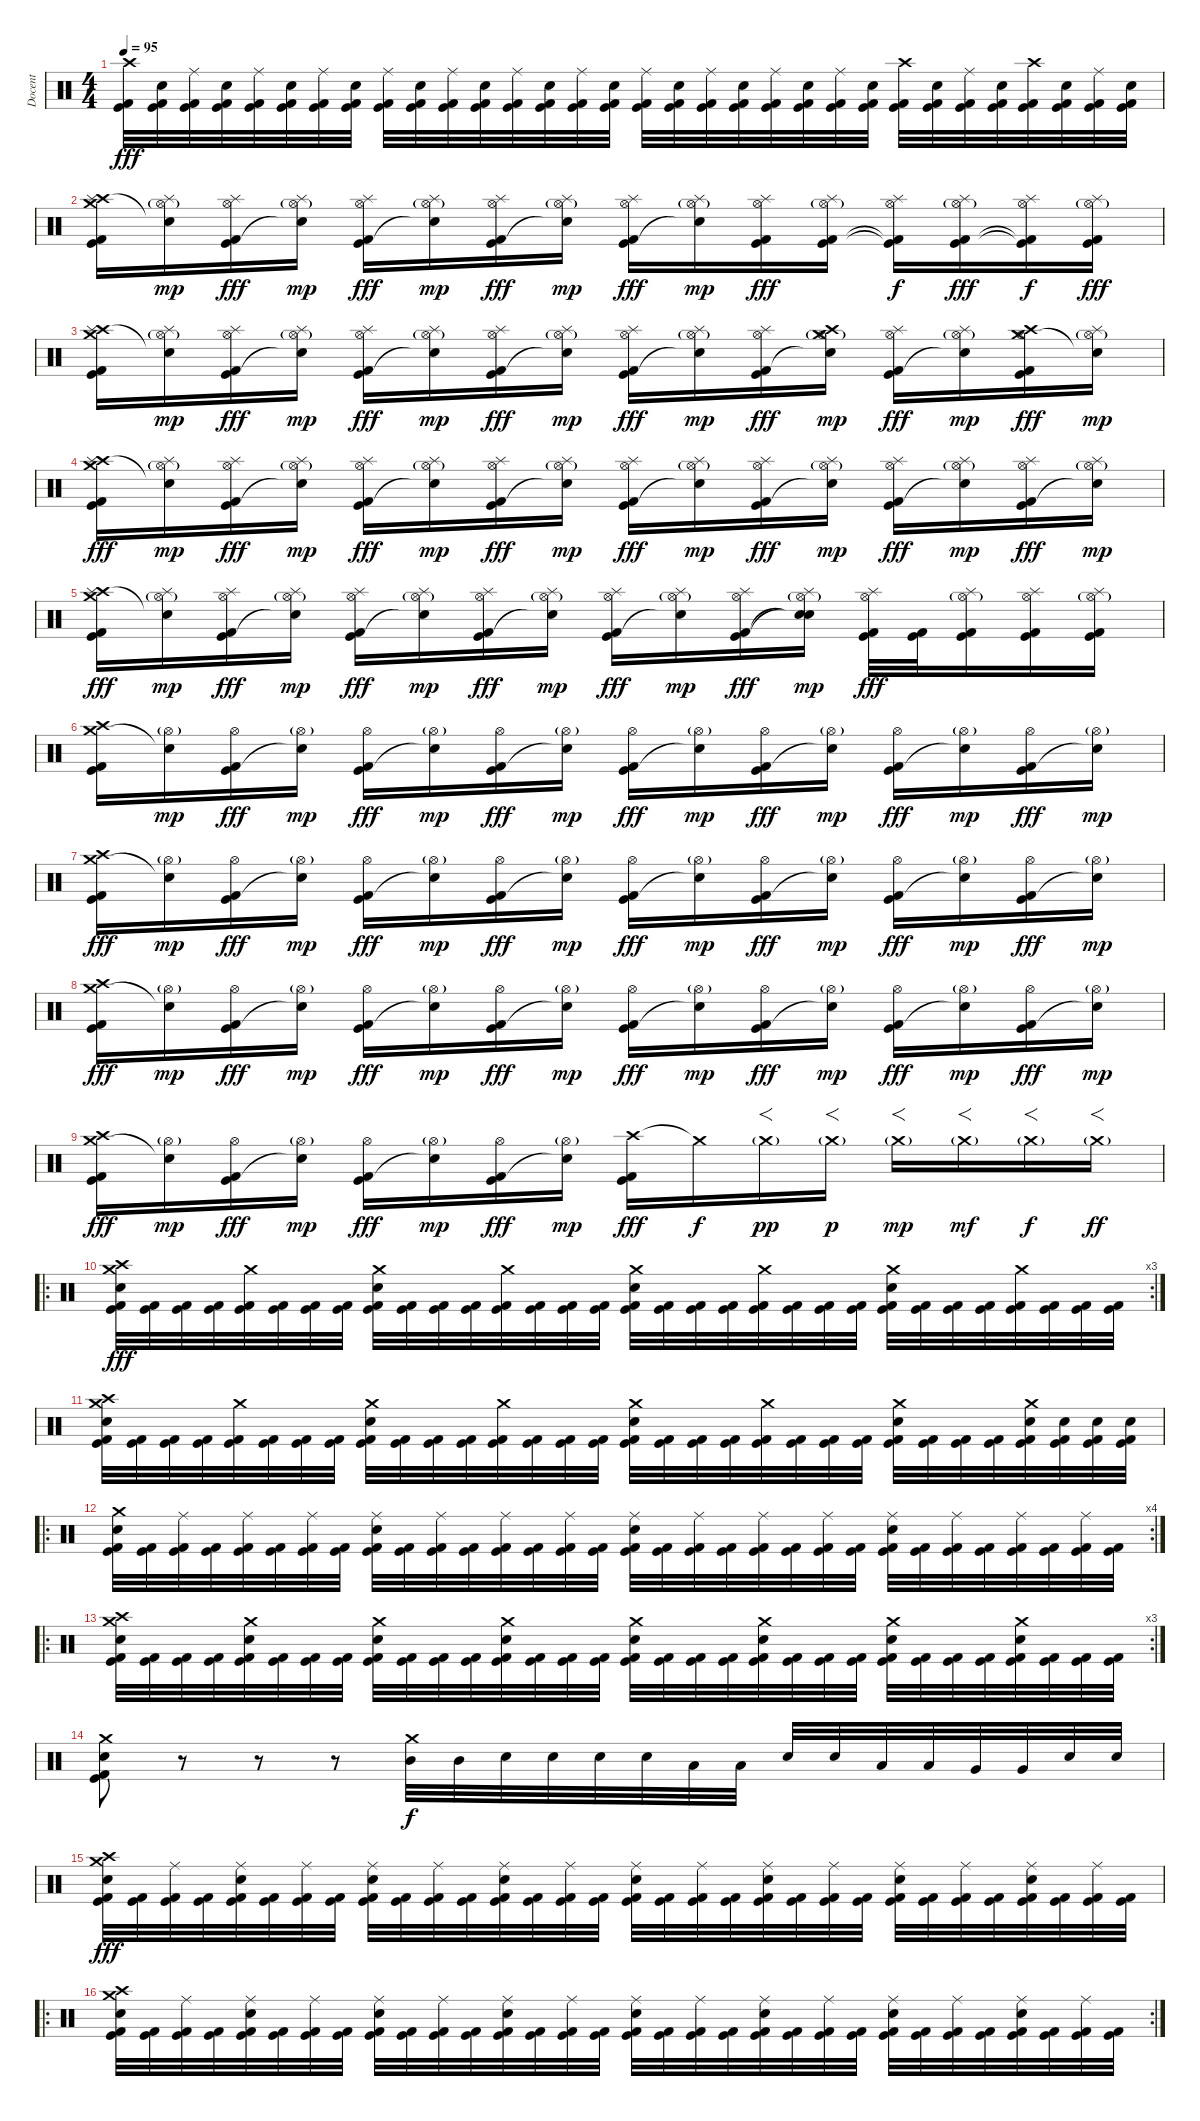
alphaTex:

\track ("Docent" "Docent") {instrument percussion}
\staff {score}
\articulation defaults
\ts (4 4)
\tempo 95
\clef neutral
\ks c
("Crash high (hit)" "Kick (hit)" "Kick (hit) 2").32{dy fff} ("Electric Snare (hit)" "Kick (hit)" "Kick (hit) 2").32 ("Ride (middle)" "Kick (hit)" "Kick (hit) 2").32 ("Electric Snare (hit)" "Kick (hit)" "Kick (hit) 2").32 ("Ride (middle)" "Kick (hit)" "Kick (hit) 2").32 ("Electric Snare (hit)" "Kick (hit)" "Kick (hit) 2").32 ("Ride (middle)" "Kick (hit)" "Kick (hit) 2").32 ("Electric Snare (hit)" "Kick (hit)" "Kick (hit) 2").32 ("Ride (middle)" "Kick (hit)" "Kick (hit) 2").32 ("Electric Snare (hit)" "Kick (hit)" "Kick (hit) 2").32 ("Ride (middle)" "Kick (hit)" "Kick (hit) 2").32 ("Electric Snare (hit)" "Kick (hit)" "Kick (hit) 2").32 ("Ride (middle)" "Kick (hit)" "Kick (hit) 2").32 ("Electric Snare (hit)" "Kick (hit)" "Kick (hit) 2").32 ("Ride (middle)" "Kick (hit)" "Kick (hit) 2").32 ("Electric Snare (hit)" "Kick (hit)" "Kick (hit) 2").32 ("Ride (middle)" "Kick (hit)" "Kick (hit) 2").32 ("Electric Snare (hit)" "Kick (hit)" "Kick (hit) 2").32 ("Ride (middle)" "Kick (hit)" "Kick (hit) 2").32 ("Electric Snare (hit)" "Kick (hit)" "Kick (hit) 2").32 ("Ride (middle)" "Kick (hit)" "Kick (hit) 2").32 ("Electric Snare (hit)" "Kick (hit)" "Kick (hit) 2").32 ("Ride (middle)" "Kick (hit)" "Kick (hit) 2").32 ("Electric Snare (hit)" "Kick (hit)" "Kick (hit) 2").32 ("Crash high (hit)" "Kick (hit)" "Kick (hit) 2").32 ("Electric Snare (hit)" "Kick (hit)" "Kick (hit) 2").32 ("Ride (middle)" "Kick (hit)" "Kick (hit) 2").32 ("Electric Snare (hit)" "Kick (hit)" "Kick (hit) 2").32 ("Crash high (hit)" "Kick (hit)" "Kick (hit) 2").32 ("Electric Snare (hit)" "Kick (hit)" "Kick (hit) 2").32 ("Ride (middle)" "Kick (hit)" "Kick (hit) 2").32 ("Electric Snare (hit)" "Kick (hit)" "Kick (hit) 2").32 |
("Crash high (hit)" "Crash medium (hit)" "Splash (hit)" "Kick (hit)" "Kick (hit) 2").16 ("Hi-Hat (open)"{g} "Splash (hit)" "Snare (hit)"{t}).16{dy mp} ("Hi-Hat (open)" "Splash (hit)" "Kick (hit)" "Kick (hit) 2").16{dy fff} ("Hi-Hat (open)"{g} "Splash (hit)" "Snare (hit)"{t}).16{dy mp} ("Hi-Hat (open)" "Splash (hit)" "Kick (hit)" "Kick (hit) 2").16{dy fff} ("Hi-Hat (open)"{g} "Splash (hit)" "Snare (hit)"{t}).16{dy mp} ("Hi-Hat (open)" "Splash (hit)" "Kick (hit)" "Kick (hit) 2").16{dy fff} ("Hi-Hat (open)"{g} "Splash (hit)" "Snare (hit)"{t}).16{dy mp} ("Hi-Hat (open)" "Splash (hit)" "Kick (hit)" "Kick (hit) 2").16{dy fff} ("Hi-Hat (open)"{g} "Splash (hit)" "Snare (hit)"{t}).16{dy mp} ("Hi-Hat (open)" "Splash (hit)" "Kick (hit)" "Kick (hit) 2").16{dy fff} ("Hi-Hat (open)"{g} "Splash (hit)" "Kick (hit)" "Kick (hit) 2").16 ("Hi-Hat (open)" "Splash (hit)" "Kick (hit)"{t} "Kick (hit) 2"{t}).16{dy f} ("Hi-Hat (open)"{g} "Splash (hit)" "Kick (hit)" "Kick (hit) 2").16{dy fff} ("Hi-Hat (open)" "Splash (hit)" "Kick (hit)"{t} "Kick (hit) 2"{t}).16{dy f} ("Hi-Hat (open)"{g} "Splash (hit)" "Kick (hit)" "Kick (hit) 2").16{dy fff} |
("Crash high (hit)" "Crash medium (hit)" "Splash (hit)" "Kick (hit)" "Kick (hit) 2").16 ("Hi-Hat (open)"{g} "Splash (hit)" "Snare (hit)"{t}).16{dy mp} ("Hi-Hat (open)" "Splash (hit)" "Kick (hit)" "Kick (hit) 2").16{dy fff} ("Hi-Hat (open)"{g} "Splash (hit)" "Snare (hit)"{t}).16{dy mp} ("Hi-Hat (open)" "Splash (hit)" "Kick (hit)" "Kick (hit) 2").16{dy fff} ("Hi-Hat (open)"{g} "Splash (hit)" "Snare (hit)"{t}).16{dy mp} ("Hi-Hat (open)" "Splash (hit)" "Kick (hit)" "Kick (hit) 2").16{dy fff} ("Hi-Hat (open)"{g} "Splash (hit)" "Snare (hit)"{t}).16{dy mp} ("Hi-Hat (open)" "Splash (hit)" "Kick (hit)" "Kick (hit) 2").16{dy fff} ("Hi-Hat (open)"{g} "Splash (hit)" "Snare (hit)"{t}).16{dy mp} ("Hi-Hat (open)" "Splash (hit)" "Kick (hit)" "Kick (hit) 2").16{dy fff} ("Hi-Hat (open)"{g} "Crash high (hit)" "Crash medium (hit)" "Snare (hit)"{t}).16{dy mp} ("Hi-Hat (open)" "Splash (hit)" "Kick (hit)" "Kick (hit) 2").16{dy fff} ("Hi-Hat (open)"{g} "Splash (hit)" "Snare (hit)"{t}).16{dy mp} ("Hi-Hat (open)" "Crash high (hit)" "Crash medium (hit)" "Kick (hit)" "Kick (hit) 2").16{dy fff} ("Hi-Hat (open)"{g} "Splash (hit)" "Snare (hit)"{t}).16{dy mp} |
("Crash high (hit)" "Crash medium (hit)" "Splash (hit)" "Kick (hit)" "Kick (hit) 2").16{dy fff} ("Hi-Hat (open)"{g} "Splash (hit)" "Snare (hit)"{t}).16{dy mp} ("Hi-Hat (open)" "Splash (hit)" "Kick (hit)" "Kick (hit) 2").16{dy fff} ("Hi-Hat (open)"{g} "Splash (hit)" "Snare (hit)"{t}).16{dy mp} ("Hi-Hat (open)" "Splash (hit)" "Kick (hit)" "Kick (hit) 2").16{dy fff} ("Hi-Hat (open)"{g} "Splash (hit)" "Snare (hit)"{t}).16{dy mp} ("Hi-Hat (open)" "Splash (hit)" "Kick (hit)" "Kick (hit) 2").16{dy fff} ("Hi-Hat (open)"{g} "Splash (hit)" "Snare (hit)"{t}).16{dy mp} ("Hi-Hat (open)" "Splash (hit)" "Kick (hit)" "Kick (hit) 2").16{dy fff} ("Hi-Hat (open)"{g} "Splash (hit)" "Snare (hit)"{t}).16{dy mp} ("Hi-Hat (open)" "Splash (hit)" "Kick (hit)" "Kick (hit) 2").16{dy fff} ("Hi-Hat (open)"{g} "Splash (hit)" "Snare (hit)"{t}).16{dy mp} ("Hi-Hat (open)" "Splash (hit)" "Kick (hit)" "Kick (hit) 2").16{dy fff} ("Hi-Hat (open)"{g} "Splash (hit)" "Snare (hit)"{t}).16{dy mp} ("Hi-Hat (open)" "Splash (hit)" "Kick (hit)" "Kick (hit) 2").16{dy fff} ("Hi-Hat (open)"{g} "Splash (hit)" "Snare (hit)"{t}).16{dy mp} |
("Crash high (hit)" "Crash medium (hit)" "Splash (hit)" "Kick (hit)" "Kick (hit) 2").16{dy fff} ("Hi-Hat (open)"{g} "Splash (hit)" "Snare (hit)"{t}).16{dy mp} ("Hi-Hat (open)" "Splash (hit)" "Kick (hit)" "Kick (hit) 2").16{dy fff} ("Hi-Hat (open)"{g} "Splash (hit)" "Snare (hit)"{t}).16{dy mp} ("Hi-Hat (open)" "Splash (hit)" "Kick (hit)" "Kick (hit) 2").16{dy fff} ("Hi-Hat (open)"{g} "Splash (hit)" "Snare (hit)"{t}).16{dy mp} ("Hi-Hat (open)" "Splash (hit)" "Kick (hit)" "Kick (hit) 2").16{dy fff} ("Hi-Hat (open)"{g} "Splash (hit)" "Snare (hit)"{t}).16{dy mp} ("Hi-Hat (open)" "Splash (hit)" "Kick (hit)" "Kick (hit) 2").16{dy fff} ("Hi-Hat (open)"{g} "Splash (hit)" "Snare (hit)"{t}).16{dy mp} ("Hi-Hat (open)" "Splash (hit)" "Kick (hit)" "Kick (hit) 2").16{dy fff} ("Hi-Hat (open)"{g} "Splash (hit)" "Snare (hit)"{t} "Snare (hit)"{t}).16{dy mp} ("Hi-Hat (open)" "Splash (hit)" "Kick (hit)" "Kick (hit) 2").32{dy fff} ("Kick (hit)" "Kick (hit) 2").32 ("Hi-Hat (open)"{g} "Splash (hit)" "Kick (hit)" "Kick (hit) 2").16 ("Hi-Hat (open)" "Splash (hit)" "Kick (hit)" "Kick (hit) 2").16 ("Hi-Hat (open)"{g} "Splash (hit)" "Kick (hit)" "Kick (hit) 2").16 |
("Crash high (hit)" "Crash medium (hit)" "Kick (hit)" "Kick (hit) 2").16 ("Hi-Hat (open)"{g} "Snare (hit)"{t}).16{dy mp} ("Hi-Hat (open)" "Kick (hit)" "Kick (hit) 2").16{dy fff} ("Hi-Hat (open)"{g} "Snare (hit)"{t}).16{dy mp} ("Hi-Hat (open)" "Kick (hit)" "Kick (hit) 2").16{dy fff} ("Hi-Hat (open)"{g} "Snare (hit)"{t}).16{dy mp} ("Hi-Hat (open)" "Kick (hit)" "Kick (hit) 2").16{dy fff} ("Hi-Hat (open)"{g} "Snare (hit)"{t}).16{dy mp} ("Hi-Hat (open)" "Kick (hit)" "Kick (hit) 2").16{dy fff} ("Hi-Hat (open)"{g} "Snare (hit)"{t}).16{dy mp} ("Hi-Hat (open)" "Kick (hit)" "Kick (hit) 2").16{dy fff} ("Hi-Hat (open)"{g} "Snare (hit)"{t}).16{dy mp} ("Hi-Hat (open)" "Kick (hit)" "Kick (hit) 2").16{dy fff} ("Hi-Hat (open)"{g} "Snare (hit)"{t}).16{dy mp} ("Hi-Hat (open)" "Kick (hit)" "Kick (hit) 2").16{dy fff} ("Hi-Hat (open)"{g} "Snare (hit)"{t}).16{dy mp} |
("Crash high (hit)" "Crash medium (hit)" "Kick (hit)" "Kick (hit) 2").16{dy fff} ("Hi-Hat (open)"{g} "Snare (hit)"{t}).16{dy mp} ("Hi-Hat (open)" "Kick (hit)" "Kick (hit) 2").16{dy fff} ("Hi-Hat (open)"{g} "Snare (hit)"{t}).16{dy mp} ("Hi-Hat (open)" "Kick (hit)" "Kick (hit) 2").16{dy fff} ("Hi-Hat (open)"{g} "Snare (hit)"{t}).16{dy mp} ("Hi-Hat (open)" "Kick (hit)" "Kick (hit) 2").16{dy fff} ("Hi-Hat (open)"{g} "Snare (hit)"{t}).16{dy mp} ("Hi-Hat (open)" "Kick (hit)" "Kick (hit) 2").16{dy fff} ("Hi-Hat (open)"{g} "Snare (hit)"{t}).16{dy mp} ("Hi-Hat (open)" "Kick (hit)" "Kick (hit) 2").16{dy fff} ("Hi-Hat (open)"{g} "Snare (hit)"{t}).16{dy mp} ("Hi-Hat (open)" "Kick (hit)" "Kick (hit) 2").16{dy fff} ("Hi-Hat (open)"{g} "Snare (hit)"{t}).16{dy mp} ("Hi-Hat (open)" "Kick (hit)" "Kick (hit) 2").16{dy fff} ("Hi-Hat (open)"{g} "Snare (hit)"{t}).16{dy mp} |
("Crash high (hit)" "Crash medium (hit)" "Kick (hit)" "Kick (hit) 2").16{dy fff} ("Hi-Hat (open)"{g} "Snare (hit)"{t}).16{dy mp} ("Hi-Hat (open)" "Kick (hit)" "Kick (hit) 2").16{dy fff} ("Hi-Hat (open)"{g} "Snare (hit)"{t}).16{dy mp} ("Hi-Hat (open)" "Kick (hit)" "Kick (hit) 2").16{dy fff} ("Hi-Hat (open)"{g} "Snare (hit)"{t}).16{dy mp} ("Hi-Hat (open)" "Kick (hit)" "Kick (hit) 2").16{dy fff} ("Hi-Hat (open)"{g} "Snare (hit)"{t}).16{dy mp} ("Hi-Hat (open)" "Kick (hit)" "Kick (hit) 2").16{dy fff} ("Hi-Hat (open)"{g} "Snare (hit)"{t}).16{dy mp} ("Hi-Hat (open)" "Kick (hit)" "Kick (hit) 2").16{dy fff} ("Hi-Hat (open)"{g} "Snare (hit)"{t}).16{dy mp} ("Hi-Hat (open)" "Kick (hit)" "Kick (hit) 2").16{dy fff} ("Hi-Hat (open)"{g} "Snare (hit)"{t}).16{dy mp} ("Hi-Hat (open)" "Kick (hit)" "Kick (hit) 2").16{dy fff} ("Hi-Hat (open)"{g} "Snare (hit)"{t}).16{dy mp} |
("Crash high (hit)" "Crash medium (hit)" "Kick (hit)" "Kick (hit) 2").16{dy fff} ("Hi-Hat (open)"{g} "Snare (hit)"{t}).16{dy mp} ("Hi-Hat (open)" "Kick (hit)" "Kick (hit) 2").16{dy fff} ("Hi-Hat (open)"{g} "Snare (hit)"{t}).16{dy mp} ("Hi-Hat (open)" "Kick (hit)" "Kick (hit) 2").16{dy fff} ("Hi-Hat (open)"{g} "Snare (hit)"{t}).16{dy mp} ("Hi-Hat (open)" "Kick (hit)" "Kick (hit) 2").16{dy fff} ("Hi-Hat (open)"{g} "Snare (hit)"{t}).16{dy mp} ("Crash high (hit)" "Kick (hit)" "Kick (hit) 2").16{dy fff} "Crash medium (hit)"{t}.16{dy f} "Crash medium (hit)"{g}.16{f dy pp} "Crash medium (hit)"{g}.16{f dy p} "Crash medium (hit)"{g}.16{f dy mp} "Crash medium (hit)"{g}.16{f dy mf} "Crash medium (hit)"{g}.16{f dy f} "Crash medium (hit)"{g}.16{f dy ff} |
\ro
\rc 3
("Crash medium (hit)" "Crash high (hit)" "Electric Snare (hit)" "Kick (hit)" "Kick (hit) 2").32{dy fff} ("Kick (hit)" "Kick (hit) 2").32 ("Kick (hit)" "Kick (hit) 2").32 ("Kick (hit)" "Kick (hit) 2").32 ("Crash medium (hit)" "Kick (hit)" "Kick (hit) 2").32 ("Kick (hit)" "Kick (hit) 2").32 ("Kick (hit)" "Kick (hit) 2").32 ("Kick (hit)" "Kick (hit) 2").32 ("Crash medium (hit)" "Electric Snare (hit)" "Kick (hit)" "Kick (hit) 2").32 ("Kick (hit)" "Kick (hit) 2").32 ("Kick (hit)" "Kick (hit) 2").32 ("Kick (hit)" "Kick (hit) 2").32 ("Crash medium (hit)" "Kick (hit)" "Kick (hit) 2").32 ("Kick (hit)" "Kick (hit) 2").32 ("Kick (hit)" "Kick (hit) 2").32 ("Kick (hit)" "Kick (hit) 2").32 ("Crash medium (hit)" "Electric Snare (hit)" "Kick (hit)" "Kick (hit) 2").32 ("Kick (hit)" "Kick (hit) 2").32 ("Kick (hit)" "Kick (hit) 2").32 ("Kick (hit)" "Kick (hit) 2").32 ("Crash medium (hit)" "Kick (hit)" "Kick (hit) 2").32 ("Kick (hit)" "Kick (hit) 2").32 ("Kick (hit)" "Kick (hit) 2").32 ("Kick (hit)" "Kick (hit) 2").32 ("Crash medium (hit)" "Electric Snare (hit)" "Kick (hit)" "Kick (hit) 2").32 ("Kick (hit)" "Kick (hit) 2").32 ("Kick (hit)" "Kick (hit) 2").32 ("Kick (hit)" "Kick (hit) 2").32 ("Crash medium (hit)" "Kick (hit)" "Kick (hit) 2").32 ("Kick (hit)" "Kick (hit) 2").32 ("Kick (hit)" "Kick (hit) 2").32 ("Kick (hit)" "Kick (hit) 2").32 |
("Crash medium (hit)" "Crash high (hit)" "Electric Snare (hit)" "Kick (hit)" "Kick (hit) 2").32 ("Kick (hit)" "Kick (hit) 2").32 ("Kick (hit)" "Kick (hit) 2").32 ("Kick (hit)" "Kick (hit) 2").32 ("Crash medium (hit)" "Kick (hit)" "Kick (hit) 2").32 ("Kick (hit)" "Kick (hit) 2").32 ("Kick (hit)" "Kick (hit) 2").32 ("Kick (hit)" "Kick (hit) 2").32 ("Crash medium (hit)" "Electric Snare (hit)" "Kick (hit)" "Kick (hit) 2").32 ("Kick (hit)" "Kick (hit) 2").32 ("Kick (hit)" "Kick (hit) 2").32 ("Kick (hit)" "Kick (hit) 2").32 ("Crash medium (hit)" "Kick (hit)" "Kick (hit) 2").32 ("Kick (hit)" "Kick (hit) 2").32 ("Kick (hit)" "Kick (hit) 2").32 ("Kick (hit)" "Kick (hit) 2").32 ("Crash medium (hit)" "Electric Snare (hit)" "Kick (hit)" "Kick (hit) 2").32 ("Kick (hit)" "Kick (hit) 2").32 ("Kick (hit)" "Kick (hit) 2").32 ("Kick (hit)" "Kick (hit) 2").32 ("Crash medium (hit)" "Kick (hit)" "Kick (hit) 2").32 ("Kick (hit)" "Kick (hit) 2").32 ("Kick (hit)" "Kick (hit) 2").32 ("Kick (hit)" "Kick (hit) 2").32 ("Crash medium (hit)" "Electric Snare (hit)" "Kick (hit)" "Kick (hit) 2").32 ("Kick (hit)" "Kick (hit) 2").32 ("Kick (hit)" "Kick (hit) 2").32 ("Kick (hit)" "Kick (hit) 2").32 ("Crash medium (hit)" "Electric Snare (hit)" "Kick (hit)" "Kick (hit) 2").32 ("Electric Snare (hit)" "Kick (hit)" "Kick (hit) 2").32 ("Electric Snare (hit)" "Kick (hit)" "Kick (hit) 2").32 ("Electric Snare (hit)" "Kick (hit)" "Kick (hit) 2").32 |
\ro
\rc 4
("Crash medium (hit)" "Electric Snare (hit)" "Kick (hit)" "Kick (hit) 2").32 ("Kick (hit)" "Kick (hit) 2").32 ("Ride (middle)" "Kick (hit)" "Kick (hit) 2").32 ("Kick (hit)" "Kick (hit) 2").32 ("Ride (middle)" "Kick (hit)" "Kick (hit) 2").32 ("Kick (hit)" "Kick (hit) 2").32 ("Ride (middle)" "Kick (hit)" "Kick (hit) 2").32 ("Kick (hit)" "Kick (hit) 2").32 ("Ride (middle)" "Electric Snare (hit)" "Kick (hit)" "Kick (hit) 2").32 ("Kick (hit)" "Kick (hit) 2").32 ("Ride (middle)" "Kick (hit)" "Kick (hit) 2").32 ("Kick (hit)" "Kick (hit) 2").32 ("Ride (middle)" "Kick (hit)" "Kick (hit) 2").32 ("Kick (hit)" "Kick (hit) 2").32 ("Ride (middle)" "Kick (hit)" "Kick (hit) 2").32 ("Kick (hit)" "Kick (hit) 2").32 ("Ride (middle)" "Electric Snare (hit)" "Kick (hit)" "Kick (hit) 2").32 ("Kick (hit)" "Kick (hit) 2").32 ("Ride (middle)" "Kick (hit)" "Kick (hit) 2").32 ("Kick (hit)" "Kick (hit) 2").32 ("Ride (middle)" "Kick (hit)" "Kick (hit) 2").32 ("Kick (hit)" "Kick (hit) 2").32 ("Ride (middle)" "Kick (hit)" "Kick (hit) 2").32 ("Kick (hit)" "Kick (hit) 2").32 ("Ride (middle)" "Electric Snare (hit)" "Kick (hit)" "Kick (hit) 2").32 ("Kick (hit)" "Kick (hit) 2").32 ("Ride (middle)" "Kick (hit)" "Kick (hit) 2").32 ("Kick (hit)" "Kick (hit) 2").32 ("Ride (middle)" "Kick (hit)" "Kick (hit) 2").32 ("Kick (hit)" "Kick (hit) 2").32 ("Ride (middle)" "Kick (hit)" "Kick (hit) 2").32 ("Kick (hit)" "Kick (hit) 2").32 |
\ro
\rc 3
("Crash medium (hit)" "Crash high (hit)" "Electric Snare (hit)" "Kick (hit)" "Kick (hit) 2").32 ("Kick (hit)" "Kick (hit) 2").32 ("Kick (hit)" "Kick (hit) 2").32 ("Kick (hit)" "Kick (hit) 2").32 ("Crash medium (hit)" "Electric Snare (hit)" "Kick (hit)" "Kick (hit) 2").32 ("Kick (hit)" "Kick (hit) 2").32 ("Kick (hit)" "Kick (hit) 2").32 ("Kick (hit)" "Kick (hit) 2").32 ("Crash medium (hit)" "Electric Snare (hit)" "Kick (hit)" "Kick (hit) 2").32 ("Kick (hit)" "Kick (hit) 2").32 ("Kick (hit)" "Kick (hit) 2").32 ("Kick (hit)" "Kick (hit) 2").32 ("Crash medium (hit)" "Electric Snare (hit)" "Kick (hit)" "Kick (hit) 2").32 ("Kick (hit)" "Kick (hit) 2").32 ("Kick (hit)" "Kick (hit) 2").32 ("Kick (hit)" "Kick (hit) 2").32 ("Crash medium (hit)" "Electric Snare (hit)" "Kick (hit)" "Kick (hit) 2").32 ("Kick (hit)" "Kick (hit) 2").32 ("Kick (hit)" "Kick (hit) 2").32 ("Kick (hit)" "Kick (hit) 2").32 ("Crash medium (hit)" "Electric Snare (hit)" "Kick (hit)" "Kick (hit) 2").32 ("Kick (hit)" "Kick (hit) 2").32 ("Kick (hit)" "Kick (hit) 2").32 ("Kick (hit)" "Kick (hit) 2").32 ("Crash medium (hit)" "Electric Snare (hit)" "Kick (hit)" "Kick (hit) 2").32 ("Kick (hit)" "Kick (hit) 2").32 ("Kick (hit)" "Kick (hit) 2").32 ("Kick (hit)" "Kick (hit) 2").32 ("Crash medium (hit)" "Electric Snare (hit)" "Kick (hit)" "Kick (hit) 2").32 ("Kick (hit)" "Kick (hit) 2").32 ("Kick (hit)" "Kick (hit) 2").32 ("Kick (hit)" "Kick (hit) 2").32 |
("Crash medium (hit)" "Electric Snare (hit)" "Kick (hit)" "Kick (hit) 2").8 r.8 r.8 r.8 ("Crash medium (hit)" "Mid Tom (hit)").32{dy f} "Mid Tom (hit)".32 "Electric Snare (hit)".32 "Electric Snare (hit)".32 "Electric Snare (hit)".32 "Electric Snare (hit)".32 "Low Tom (hit)".32 "Low Tom (hit)".32 "Electric Snare (hit)".32 "Electric Snare (hit)".32 "Low Tom (hit)".32 "Low Tom (hit)".32 "Very Low Tom (hit)".32 "Very Low Tom (hit)".32 "Electric Snare (hit)".32 "Electric Snare (hit)".32 |
("Crash medium (hit)" "Crash high (hit)" "Electric Snare (hit)" "Kick (hit)" "Kick (hit) 2").32{dy fff} ("Kick (hit)" "Kick (hit) 2").32 ("Ride (middle)" "Kick (hit)" "Kick (hit) 2").32 ("Kick (hit)" "Kick (hit) 2").32 ("Ride (middle)" "Electric Snare (hit)" "Kick (hit)" "Kick (hit) 2").32 ("Kick (hit)" "Kick (hit) 2").32 ("Ride (middle)" "Kick (hit)" "Kick (hit) 2").32 ("Kick (hit)" "Kick (hit) 2").32 ("Ride (middle)" "Electric Snare (hit)" "Kick (hit)" "Kick (hit) 2").32 ("Kick (hit)" "Kick (hit) 2").32 ("Ride (middle)" "Kick (hit)" "Kick (hit) 2").32 ("Kick (hit)" "Kick (hit) 2").32 ("Ride (middle)" "Electric Snare (hit)" "Kick (hit)" "Kick (hit) 2").32 ("Kick (hit)" "Kick (hit) 2").32 ("Ride (middle)" "Kick (hit)" "Kick (hit) 2").32 ("Kick (hit)" "Kick (hit) 2").32 ("Ride (middle)" "Electric Snare (hit)" "Kick (hit)" "Kick (hit) 2").32 ("Kick (hit)" "Kick (hit) 2").32 ("Ride (middle)" "Kick (hit)" "Kick (hit) 2").32 ("Kick (hit)" "Kick (hit) 2").32 ("Ride (middle)" "Electric Snare (hit)" "Kick (hit)" "Kick (hit) 2").32 ("Kick (hit)" "Kick (hit) 2").32 ("Ride (middle)" "Kick (hit)" "Kick (hit) 2").32 ("Kick (hit)" "Kick (hit) 2").32 ("Ride (middle)" "Electric Snare (hit)" "Kick (hit)" "Kick (hit) 2").32 ("Kick (hit)" "Kick (hit) 2").32 ("Ride (middle)" "Kick (hit)" "Kick (hit) 2").32 ("Kick (hit)" "Kick (hit) 2").32 ("Ride (middle)" "Electric Snare (hit)" "Kick (hit)" "Kick (hit) 2").32 ("Kick (hit)" "Kick (hit) 2").32 ("Ride (middle)" "Kick (hit)" "Kick (hit) 2").32 ("Kick (hit)" "Kick (hit) 2").32 |
\ro
\rc 2
("Crash medium (hit)" "Crash high (hit)" "Electric Snare (hit)" "Kick (hit)" "Kick (hit) 2").32 ("Kick (hit)" "Kick (hit) 2").32 ("Ride (middle)" "Kick (hit)" "Kick (hit) 2").32 ("Kick (hit)" "Kick (hit) 2").32 ("Ride (middle)" "Electric Snare (hit)" "Kick (hit)" "Kick (hit) 2").32 ("Kick (hit)" "Kick (hit) 2").32 ("Ride (middle)" "Kick (hit)" "Kick (hit) 2").32 ("Kick (hit)" "Kick (hit) 2").32 ("Ride (middle)" "Electric Snare (hit)" "Kick (hit)" "Kick (hit) 2").32 ("Kick (hit)" "Kick (hit) 2").32 ("Ride (middle)" "Kick (hit)" "Kick (hit) 2").32 ("Kick (hit)" "Kick (hit) 2").32 ("Ride (middle)" "Electric Snare (hit)" "Kick (hit)" "Kick (hit) 2").32 ("Kick (hit)" "Kick (hit) 2").32 ("Ride (middle)" "Kick (hit)" "Kick (hit) 2").32 ("Kick (hit)" "Kick (hit) 2").32 ("Ride (middle)" "Electric Snare (hit)" "Kick (hit)" "Kick (hit) 2").32 ("Kick (hit)" "Kick (hit) 2").32 ("Ride (middle)" "Kick (hit)" "Kick (hit) 2").32 ("Kick (hit)" "Kick (hit) 2").32 ("Ride (middle)" "Electric Snare (hit)" "Kick (hit)" "Kick (hit) 2").32 ("Kick (hit)" "Kick (hit) 2").32 ("Ride (middle)" "Kick (hit)" "Kick (hit) 2").32 ("Kick (hit)" "Kick (hit) 2").32 ("Ride (middle)" "Electric Snare (hit)" "Kick (hit)" "Kick (hit) 2").32 ("Kick (hit)" "Kick (hit) 2").32 ("Ride (middle)" "Kick (hit)" "Kick (hit) 2").32 ("Kick (hit)" "Kick (hit) 2").32 ("Ride (middle)" "Electric Snare (hit)" "Kick (hit)" "Kick (hit) 2").32 ("Kick (hit)" "Kick (hit) 2").32 ("Ride (middle)" "Kick (hit)" "Kick (hit) 2").32 ("Kick (hit)" "Kick (hit) 2").32
